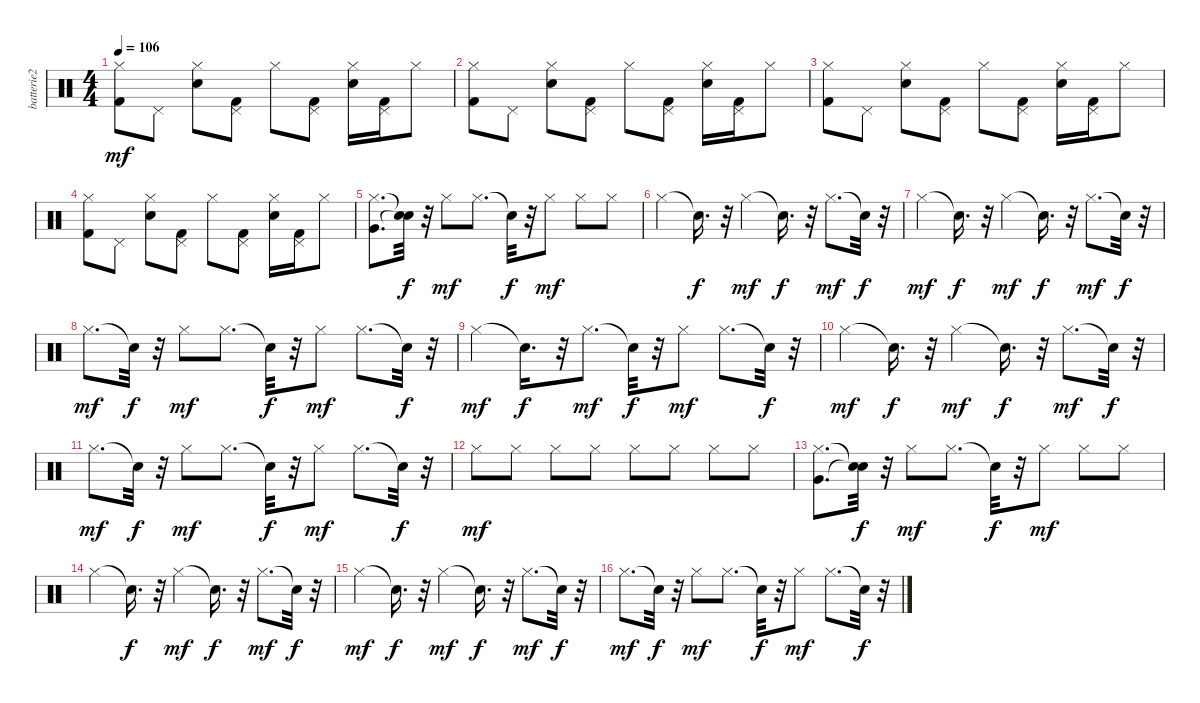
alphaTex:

\track ("batterie2" "batterie2") {instrument percussion}
\staff {score}
\articulation defaults
\ts (4 4)
\tempo 106
\clef neutral
\ks c
("Kick (hit) 2" "Hi-Hat (closed)").8{dy mf} "Pedal Hi-Hat (hit)".8 ("Snare (hit) 2" "Hi-Hat (closed)").8 ("Kick (hit) 2" "Pedal Hi-Hat (hit)").8 "Hi-Hat (closed)".8 ("Kick (hit) 2" "Pedal Hi-Hat (hit)").8 ("Snare (hit) 2" "Hi-Hat (closed)").16 ("Kick (hit) 2" "Pedal Hi-Hat (hit)").16 "Hi-Hat (closed)".8 |
("Kick (hit) 2" "Hi-Hat (closed)").8 "Pedal Hi-Hat (hit)".8 ("Snare (hit) 2" "Hi-Hat (closed)").8 ("Kick (hit) 2" "Pedal Hi-Hat (hit)").8 "Hi-Hat (closed)".8 ("Kick (hit) 2" "Pedal Hi-Hat (hit)").8 ("Snare (hit) 2" "Hi-Hat (closed)").16 ("Kick (hit) 2" "Pedal Hi-Hat (hit)").16 "Hi-Hat (closed)".8 |
("Kick (hit) 2" "Hi-Hat (closed)").8 "Pedal Hi-Hat (hit)".8 ("Snare (hit) 2" "Hi-Hat (closed)").8 ("Kick (hit) 2" "Pedal Hi-Hat (hit)").8 "Hi-Hat (closed)".8 ("Kick (hit) 2" "Pedal Hi-Hat (hit)").8 ("Snare (hit) 2" "Hi-Hat (closed)").16 ("Kick (hit) 2" "Pedal Hi-Hat (hit)").16 "Hi-Hat (closed)".8 |
("Kick (hit) 2" "Hi-Hat (closed)").8 "Pedal Hi-Hat (hit)".8 ("Snare (hit) 2" "Hi-Hat (closed)").8 ("Kick (hit) 2" "Pedal Hi-Hat (hit)").8 "Hi-Hat (closed)".8 ("Kick (hit) 2" "Pedal Hi-Hat (hit)").8 ("Snare (hit) 2" "Hi-Hat (closed)").16 ("Kick (hit) 2" "Pedal Hi-Hat (hit)").16 "Hi-Hat (closed)".8 |
("Hi-Hat (closed)" "Very Low Tom (hit)").8{d} ("Snare (hit)"{t} "Snare (hit)"{t}).32{dy f} r.32 "Hi-Hat (closed)".8{dy mf} "Hi-Hat (closed)".8{d} "Snare (hit)"{t}.32{dy f} r.32 "Hi-Hat (closed)".8{dy mf} "Hi-Hat (closed)".8 "Hi-Hat (closed)".8 |
"Hi-Hat (closed)".4 "Snare (hit)"{t}.16{d dy f} r.32 "Hi-Hat (closed)".4{dy mf} "Snare (hit)"{t}.16{d dy f} r.32 "Hi-Hat (closed)".8{d dy mf} "Snare (hit)"{t}.32{dy f} r.32 |
"Hi-Hat (closed)".4{dy mf} "Snare (hit)"{t}.16{d dy f} r.32 "Hi-Hat (closed)".4{dy mf} "Snare (hit)"{t}.16{d dy f} r.32 "Hi-Hat (closed)".8{d dy mf} "Snare (hit)"{t}.32{dy f} r.32 |
"Hi-Hat (closed)".8{d dy mf} "Snare (hit)"{t}.32{dy f} r.32 "Hi-Hat (closed)".8{dy mf} "Hi-Hat (closed)".8{d} "Snare (hit)"{t}.32{dy f} r.32 "Hi-Hat (closed)".8{dy mf} "Hi-Hat (closed)".8{d} "Snare (hit)"{t}.32{dy f} r.32 |
"Hi-Hat (closed)".4{dy mf} "Snare (hit)"{t}.16{d dy f} r.32 "Hi-Hat (closed)".8{d dy mf} "Snare (hit)"{t}.32{dy f} r.32 "Hi-Hat (closed)".8{dy mf} "Hi-Hat (closed)".8{d} "Snare (hit)"{t}.32{dy f} r.32 |
"Hi-Hat (closed)".4{dy mf} "Snare (hit)"{t}.16{d dy f} r.32 "Hi-Hat (closed)".4{dy mf} "Snare (hit)"{t}.16{d dy f} r.32 "Hi-Hat (closed)".8{d dy mf} "Snare (hit)"{t}.32{dy f} r.32 |
"Hi-Hat (closed)".8{d dy mf} "Snare (hit)"{t}.32{dy f} r.32 "Hi-Hat (closed)".8{dy mf} "Hi-Hat (closed)".8{d} "Snare (hit)"{t}.32{dy f} r.32 "Hi-Hat (closed)".8{dy mf} "Hi-Hat (closed)".8{d} "Snare (hit)"{t}.32{dy f} r.32 |
"Hi-Hat (closed)".8{dy mf} "Hi-Hat (closed)".8 "Hi-Hat (closed)".8 "Hi-Hat (closed)".8 "Hi-Hat (closed)".8 "Hi-Hat (closed)".8 "Hi-Hat (closed)".8 "Hi-Hat (closed)".8 |
("Hi-Hat (closed)" "Very Low Tom (hit)").8{d} ("Snare (hit)"{t} "Snare (hit)"{t}).32{dy f} r.32 "Hi-Hat (closed)".8{dy mf} "Hi-Hat (closed)".8{d} "Snare (hit)"{t}.32{dy f} r.32 "Hi-Hat (closed)".8{dy mf} "Hi-Hat (closed)".8 "Hi-Hat (closed)".8 |
"Hi-Hat (closed)".4 "Snare (hit)"{t}.16{d dy f} r.32 "Hi-Hat (closed)".4{dy mf} "Snare (hit)"{t}.16{d dy f} r.32 "Hi-Hat (closed)".8{d dy mf} "Snare (hit)"{t}.32{dy f} r.32 |
"Hi-Hat (closed)".4{dy mf} "Snare (hit)"{t}.16{d dy f} r.32 "Hi-Hat (closed)".4{dy mf} "Snare (hit)"{t}.16{d dy f} r.32 "Hi-Hat (closed)".8{d dy mf} "Snare (hit)"{t}.32{dy f} r.32 |
"Hi-Hat (closed)".8{d dy mf} "Snare (hit)"{t}.32{dy f} r.32 "Hi-Hat (closed)".8{dy mf} "Hi-Hat (closed)".8{d} "Snare (hit)"{t}.32{dy f} r.32 "Hi-Hat (closed)".8{dy mf} "Hi-Hat (closed)".8{d} "Snare (hit)"{t}.32{dy f} r.32
